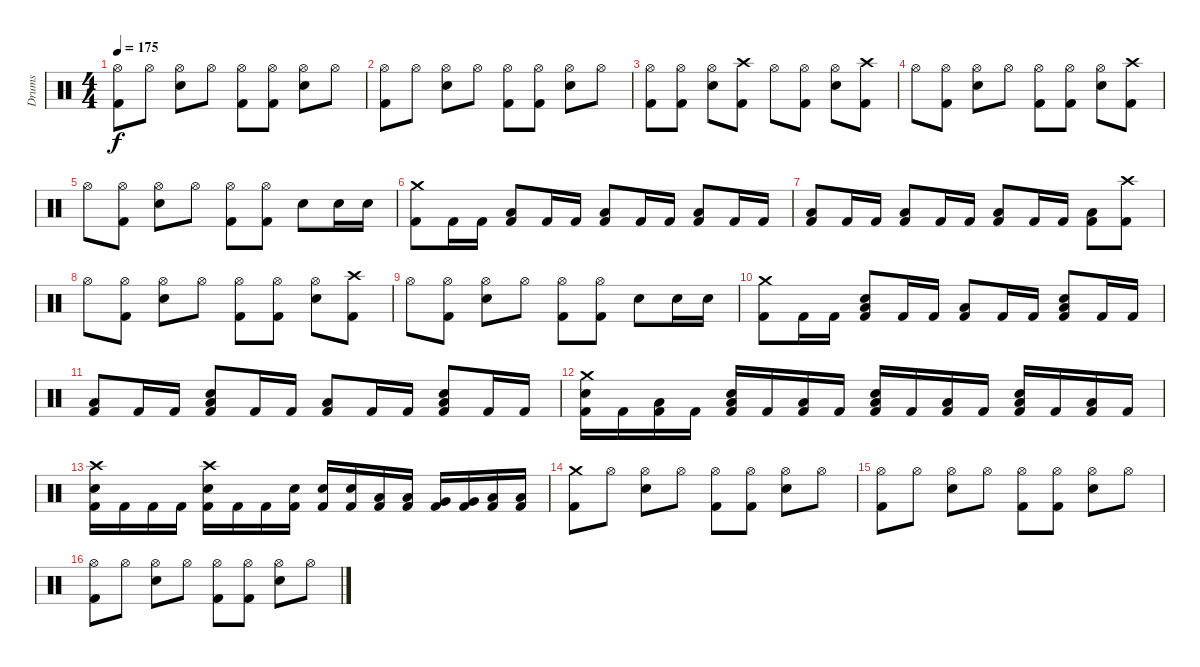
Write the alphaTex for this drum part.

\track ("Drums" "Drums") {instrument percussion}
\staff {score}
\articulation defaults
\ts (4 4)
\tempo 175
\clef neutral
\ks c
("Hi-Hat (open)" "Kick (hit) 2").8{dy f} "Hi-Hat (open)".8 ("Hi-Hat (open)" "Snare (hit) 2").8 "Hi-Hat (open)".8 ("Hi-Hat (open)" "Kick (hit) 2").8 ("Hi-Hat (open)" "Kick (hit) 2").8 ("Hi-Hat (open)" "Snare (hit) 2").8 "Hi-Hat (open)".8 |
("Hi-Hat (open)" "Kick (hit) 2").8 "Hi-Hat (open)".8 ("Hi-Hat (open)" "Snare (hit) 2").8 "Hi-Hat (open)".8 ("Hi-Hat (open)" "Kick (hit) 2").8 ("Hi-Hat (open)" "Kick (hit) 2").8 ("Hi-Hat (open)" "Snare (hit) 2").8 "Hi-Hat (open)".8 |
("Hi-Hat (open)" "Kick (hit) 2").8 ("Hi-Hat (open)" "Kick (hit) 2").8 ("Hi-Hat (open)" "Snare (hit) 2").8 ("Crash high (hit)" "Kick (hit) 2").8 "Hi-Hat (open)".8 ("Hi-Hat (open)" "Kick (hit) 2").8 ("Hi-Hat (open)" "Snare (hit) 2").8 ("Crash high (hit)" "Kick (hit) 2").8 |
"Hi-Hat (open)".8 ("Hi-Hat (open)" "Kick (hit) 2").8 ("Hi-Hat (open)" "Snare (hit) 2").8 "Hi-Hat (open)".8 ("Hi-Hat (open)" "Kick (hit) 2").8 ("Hi-Hat (open)" "Kick (hit) 2").8 ("Hi-Hat (open)" "Snare (hit) 2").8 ("Crash high (hit)" "Kick (hit) 2").8 |
"Hi-Hat (open)".8 ("Hi-Hat (open)" "Kick (hit) 2").8 ("Hi-Hat (open)" "Snare (hit) 2").8 "Hi-Hat (open)".8 ("Hi-Hat (open)" "Kick (hit) 2").8 ("Hi-Hat (open)" "Kick (hit) 2").8 "Snare (hit) 2".8 "Snare (hit) 2".16 "Snare (hit) 2".16 |
("Crash medium (hit)" "Kick (hit) 2").8 "Kick (hit) 2".16 "Kick (hit) 2".16 ("Low Floor Tom (hit)" "Kick (hit) 2").8 "Kick (hit) 2".16 "Kick (hit) 2".16 ("Low Floor Tom (hit)" "Kick (hit) 2").8 "Kick (hit) 2".16 "Kick (hit) 2".16 ("Low Floor Tom (hit)" "Kick (hit) 2").8 "Kick (hit) 2".16 "Kick (hit) 2".16 |
("Low Floor Tom (hit)" "Kick (hit) 2").8 "Kick (hit) 2".16 "Kick (hit) 2".16 ("Low Floor Tom (hit)" "Kick (hit) 2").8 "Kick (hit) 2".16 "Kick (hit) 2".16 ("Low Floor Tom (hit)" "Kick (hit) 2").8 "Kick (hit) 2".16 "Kick (hit) 2".16 ("Low Floor Tom (hit)" "Kick (hit) 2").8 ("Crash high (hit)" "Kick (hit) 2").8 |
"Hi-Hat (open)".8 ("Hi-Hat (open)" "Kick (hit) 2").8 ("Hi-Hat (open)" "Snare (hit) 2").8 "Hi-Hat (open)".8 ("Hi-Hat (open)" "Kick (hit) 2").8 ("Hi-Hat (open)" "Kick (hit) 2").8 ("Hi-Hat (open)" "Snare (hit) 2").8 ("Crash high (hit)" "Kick (hit) 2").8 |
"Hi-Hat (open)".8 ("Hi-Hat (open)" "Kick (hit) 2").8 ("Hi-Hat (open)" "Snare (hit) 2").8 "Hi-Hat (open)".8 ("Hi-Hat (open)" "Kick (hit) 2").8 ("Hi-Hat (open)" "Kick (hit) 2").8 "Snare (hit) 2".8 "Snare (hit) 2".16 "Snare (hit) 2".16 |
("Crash medium (hit)" "Kick (hit) 2").8 "Kick (hit) 2".16 "Kick (hit) 2".16 ("Snare (hit) 2" "Low Floor Tom (hit)" "Kick (hit) 2").8 "Kick (hit) 2".16 "Kick (hit) 2".16 ("Low Floor Tom (hit)" "Kick (hit) 2").8 "Kick (hit) 2".16 "Kick (hit) 2".16 ("Snare (hit) 2" "Low Floor Tom (hit)" "Kick (hit) 2").8 "Kick (hit) 2".16 "Kick (hit) 2".16 |
("Low Floor Tom (hit)" "Kick (hit) 2").8 "Kick (hit) 2".16 "Kick (hit) 2".16 ("Snare (hit) 2" "Low Floor Tom (hit)" "Kick (hit) 2").8 "Kick (hit) 2".16 "Kick (hit) 2".16 ("Low Floor Tom (hit)" "Kick (hit) 2").8 "Kick (hit) 2".16 "Kick (hit) 2".16 ("Snare (hit) 2" "Low Floor Tom (hit)" "Kick (hit) 2").8 "Kick (hit) 2".16 "Kick (hit) 2".16 |
("Crash medium (hit)" "Snare (hit) 2" "Kick (hit) 2").16 "Kick (hit) 2".16 ("Low Floor Tom (hit)" "Kick (hit) 2").16 "Kick (hit) 2".16 ("Snare (hit) 2" "Low Floor Tom (hit)" "Kick (hit) 2").16 "Kick (hit) 2".16 ("Low Floor Tom (hit)" "Kick (hit) 2").16 "Kick (hit) 2".16 ("Snare (hit) 2" "Low Floor Tom (hit)" "Kick (hit) 2").16 "Kick (hit) 2".16 ("Low Floor Tom (hit)" "Kick (hit) 2").16 "Kick (hit) 2".16 ("Snare (hit) 2" "Low Floor Tom (hit)" "Kick (hit) 2").16 "Kick (hit) 2".16 ("Low Floor Tom (hit)" "Kick (hit) 2").16 "Kick (hit) 2".16 |
("Crash high (hit)" "Snare (hit) 2" "Kick (hit) 2").16 "Kick (hit) 2".16 "Kick (hit) 2".16 "Kick (hit) 2".16 ("Crash high (hit)" "Snare (hit) 2" "Kick (hit) 2").16 "Kick (hit) 2".16 "Kick (hit) 2".16 ("Snare (hit) 2" "Kick (hit) 2").16 ("Snare (hit) 2" "Kick (hit) 2").16 ("Snare (hit) 2" "Kick (hit) 2").16 ("Low Tom (hit)" "Kick (hit) 2").16 ("Low Tom (hit)" "Kick (hit) 2").16 ("Very Low Tom (hit)" "Kick (hit) 2").16 ("Very Low Tom (hit)" "Kick (hit) 2").16 ("Low Floor Tom (hit)" "Kick (hit) 2").16 ("Low Floor Tom (hit)" "Kick (hit) 2").16 |
("Crash medium (hit)" "Kick (hit) 2").8 "Hi-Hat (open)".8 ("Hi-Hat (open)" "Snare (hit) 2").8 "Hi-Hat (open)".8 ("Hi-Hat (open)" "Kick (hit) 2").8 ("Hi-Hat (open)" "Kick (hit) 2").8 ("Hi-Hat (open)" "Snare (hit) 2").8 "Hi-Hat (open)".8 |
("Hi-Hat (open)" "Kick (hit) 2").8 "Hi-Hat (open)".8 ("Hi-Hat (open)" "Snare (hit) 2").8 "Hi-Hat (open)".8 ("Hi-Hat (open)" "Kick (hit) 2").8 ("Hi-Hat (open)" "Kick (hit) 2").8 ("Hi-Hat (open)" "Snare (hit) 2").8 "Hi-Hat (open)".8 |
("Hi-Hat (open)" "Kick (hit) 2").8 "Hi-Hat (open)".8 ("Hi-Hat (open)" "Snare (hit) 2").8 "Hi-Hat (open)".8 ("Hi-Hat (open)" "Kick (hit) 2").8 ("Hi-Hat (open)" "Kick (hit) 2").8 ("Hi-Hat (open)" "Snare (hit) 2").8 "Hi-Hat (open)".8
